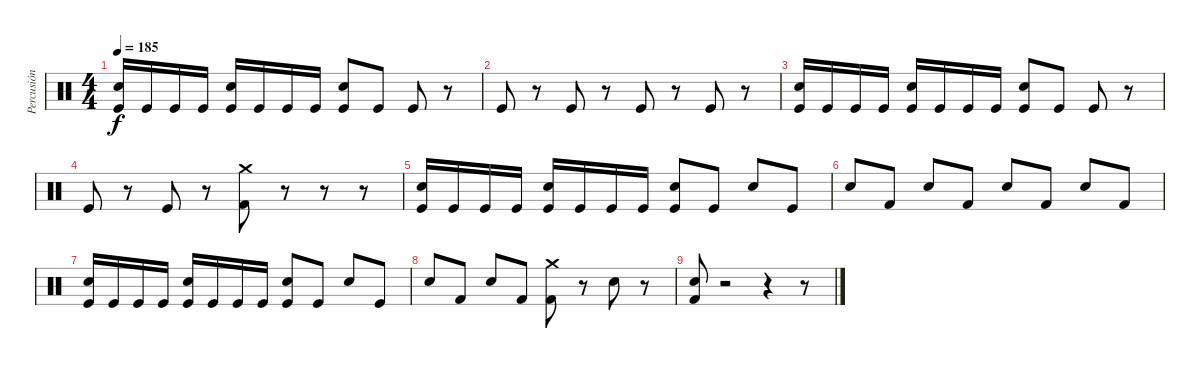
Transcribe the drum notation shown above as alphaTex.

\track ("Percusión" "Percusión") {instrument percussion}
\staff {score}
\articulation defaults
\ts (4 4)
\tempo 185
\clef neutral
\ks c
("Snare (hit) 2" "Kick (hit)").16{dy f} "Kick (hit)".16 "Kick (hit)".16 "Kick (hit)".16 ("Snare (hit) 2" "Kick (hit)").16 "Kick (hit)".16 "Kick (hit)".16 "Kick (hit)".16 ("Snare (hit) 2" "Kick (hit)").8 "Kick (hit)".8 "Kick (hit)".8 r.8 |
"Kick (hit)".8 r.8 "Kick (hit)".8 r.8 "Kick (hit)".8 r.8 "Kick (hit)".8 r.8 |
("Snare (hit) 2" "Kick (hit)").16 "Kick (hit)".16 "Kick (hit)".16 "Kick (hit)".16 ("Snare (hit) 2" "Kick (hit)").16 "Kick (hit)".16 "Kick (hit)".16 "Kick (hit)".16 ("Snare (hit) 2" "Kick (hit)").8 "Kick (hit)".8 "Kick (hit)".8 r.8 |
"Kick (hit)".8 r.8 "Kick (hit)".8 r.8 ("Crash medium (hit)" "Kick (hit) 2").8 r.8 r.8 r.8 |
("Snare (hit) 2" "Kick (hit)").16 "Kick (hit)".16 "Kick (hit)".16 "Kick (hit)".16 ("Snare (hit) 2" "Kick (hit)").16 "Kick (hit)".16 "Kick (hit)".16 "Kick (hit)".16 ("Snare (hit) 2" "Kick (hit)").8 "Kick (hit)".8 "Snare (hit) 2".8 "Kick (hit)".8 |
"Snare (hit) 2".8 "Kick (hit) 2".8 "Snare (hit) 2".8 "Kick (hit) 2".8 "Snare (hit) 2".8 "Kick (hit) 2".8 "Snare (hit) 2".8 "Kick (hit) 2".8 |
("Snare (hit) 2" "Kick (hit)").16 "Kick (hit)".16 "Kick (hit)".16 "Kick (hit)".16 ("Snare (hit) 2" "Kick (hit)").16 "Kick (hit)".16 "Kick (hit)".16 "Kick (hit)".16 ("Snare (hit) 2" "Kick (hit)").8 "Kick (hit)".8 "Snare (hit) 2".8 "Kick (hit)".8 |
"Snare (hit) 2".8 "Kick (hit) 2".8 "Snare (hit) 2".8 "Kick (hit) 2".8 ("Crash medium (hit)" "Kick (hit) 2").8 r.8 "Snare (hit) 2".8 r.8 |
("Kick (hit) 2" "Snare (hit) 2").8 r.2 r.4 r.8
